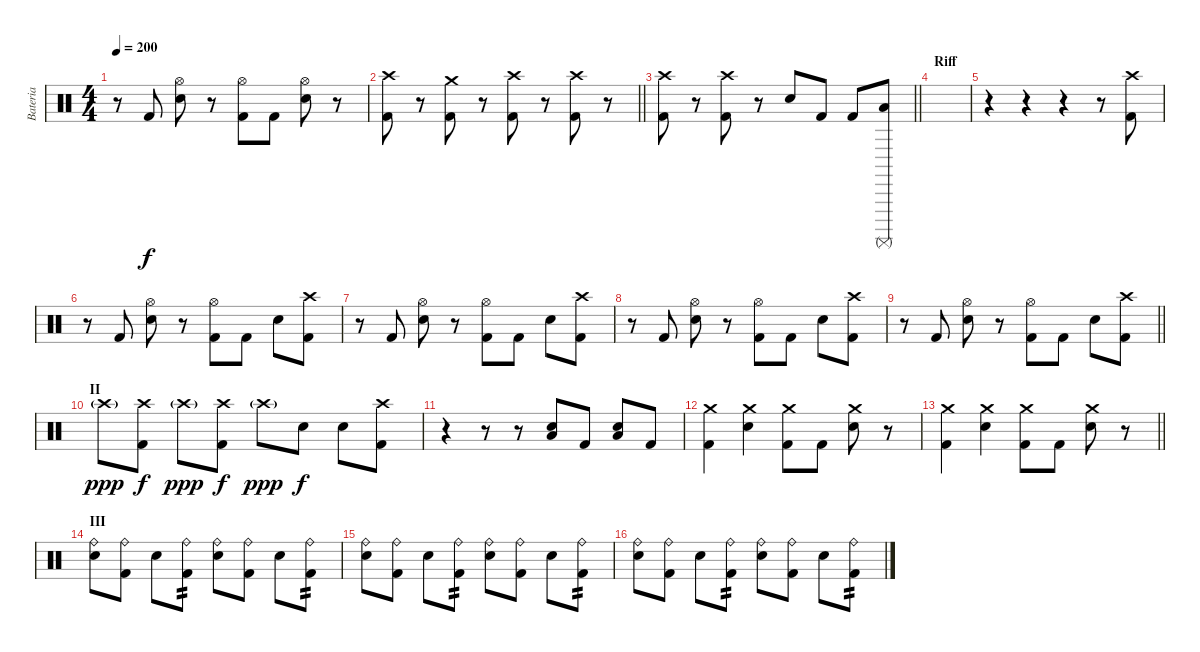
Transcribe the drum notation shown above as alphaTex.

\track ("Bateria" "Bateria") {instrument percussion}
\staff {score}
\articulation defaults
\ts (4 4)
\tempo 200
\clef neutral
\ks c
r.8{dy f} "Kick (hit) 2".8 ("Electric Snare (hit)" "Hi-Hat (open)").8 r.8 ("Kick (hit) 2" "Hi-Hat (open)").8 "Kick (hit) 2".8 ("Electric Snare (hit)" "Hi-Hat (open)").8 r.8 |
\barLineRight lightlight
("Kick (hit) 2" "Crash high (hit)").8 r.8 ("Kick (hit) 2" "Crash medium (hit)").8 r.8 ("Kick (hit) 2" "Crash high (hit)").8 r.8 ("Kick (hit) 2" "Crash high (hit)").8 r.8 |
\barLineRight lightlight
("Kick (hit) 2" "Crash high (hit)").8 r.8 ("Kick (hit) 2" "Crash high (hit)").8 r.8 "Electric Snare (hit)".8 "Kick (hit) 2".8 "Kick (hit) 2".8 ("Low Tom (hit)" "Surdo (mute)").8 |
\section ("" "Riff")
|
r.4 r.4 r.4 r.8 ("Kick (hit) 2" "Crash high (hit)").8 |
r.8 "Kick (hit) 2".8 ("Electric Snare (hit)" "Hi-Hat (open)").8 r.8 ("Kick (hit) 2" "Hi-Hat (open)").8 "Kick (hit) 2".8 "Electric Snare (hit)".8 ("Kick (hit) 2" "Crash high (hit)").8 |
r.8 "Kick (hit) 2".8 ("Electric Snare (hit)" "Hi-Hat (open)").8 r.8 ("Kick (hit) 2" "Hi-Hat (open)").8 "Kick (hit) 2".8 "Electric Snare (hit)".8 ("Kick (hit) 2" "Crash high (hit)").8 |
r.8 "Kick (hit) 2".8 ("Electric Snare (hit)" "Hi-Hat (open)").8 r.8 ("Kick (hit) 2" "Hi-Hat (open)").8 "Kick (hit) 2".8 "Electric Snare (hit)".8 ("Kick (hit) 2" "Crash high (hit)").8 |
\barLineRight lightlight
r.8 "Kick (hit) 2".8 ("Electric Snare (hit)" "Hi-Hat (open)").8 r.8 ("Kick (hit) 2" "Hi-Hat (open)").8 "Kick (hit) 2".8 "Electric Snare (hit)".8 ("Kick (hit) 2" "Crash high (hit)").8 |
\section ("" "II")
"Crash high (hit)"{g}.8{dy ppp} ("Kick (hit) 2" "Crash high (hit)").8{dy f} "Crash high (hit)"{g}.8{dy ppp} ("Kick (hit) 2" "Crash high (hit)").8{dy f} "Crash high (hit)"{g}.8{dy ppp} "Electric Snare (hit)".8{dy f} "Electric Snare (hit)".8 ("Kick (hit) 2" "Crash high (hit)").8 |
r.4 r.8 r.8 ("Electric Snare (hit)" "Low Tom (hit)").8 "Kick (hit) 2".8 ("Electric Snare (hit)" "Low Tom (hit)").8 "Kick (hit) 2".8 |
("Kick (hit) 2" "Crash medium (hit)").4 ("Electric Snare (hit)" "Crash medium (hit)").4 ("Kick (hit) 2" "Crash medium (hit)").8 "Kick (hit) 2".8 ("Electric Snare (hit)" "Crash medium (hit)").8 r.8 |
\barLineRight lightlight
("Kick (hit) 2" "Crash medium (hit)").4 ("Electric Snare (hit)" "Crash medium (hit)").4 ("Kick (hit) 2" "Crash medium (hit)").8 "Kick (hit) 2".8 ("Electric Snare (hit)" "Crash medium (hit)").8 r.8 |
\section ("" "III")
("Electric Snare (hit)" "Ride (bell)").8 ("Kick (hit) 2" "Ride (bell)").8 "Electric Snare (hit)".8 ("Kick (hit) 2" "Ride (bell)").8{tp 2} ("Electric Snare (hit)" "Ride (bell)").8 ("Kick (hit) 2" "Ride (bell)").8 "Electric Snare (hit)".8 ("Kick (hit) 2" "Ride (bell)").8{tp 2} |
("Electric Snare (hit)" "Ride (bell)").8 ("Kick (hit) 2" "Ride (bell)").8 "Electric Snare (hit)".8 ("Kick (hit) 2" "Ride (bell)").8{tp 2} ("Electric Snare (hit)" "Ride (bell)").8 ("Kick (hit) 2" "Ride (bell)").8 "Electric Snare (hit)".8 ("Kick (hit) 2" "Ride (bell)").8{tp 2} |
("Electric Snare (hit)" "Ride (bell)").8 ("Kick (hit) 2" "Ride (bell)").8 "Electric Snare (hit)".8 ("Kick (hit) 2" "Ride (bell)").8{tp 2} ("Electric Snare (hit)" "Ride (bell)").8 ("Kick (hit) 2" "Ride (bell)").8 "Electric Snare (hit)".8 ("Kick (hit) 2" "Ride (bell)").8{tp 2}
